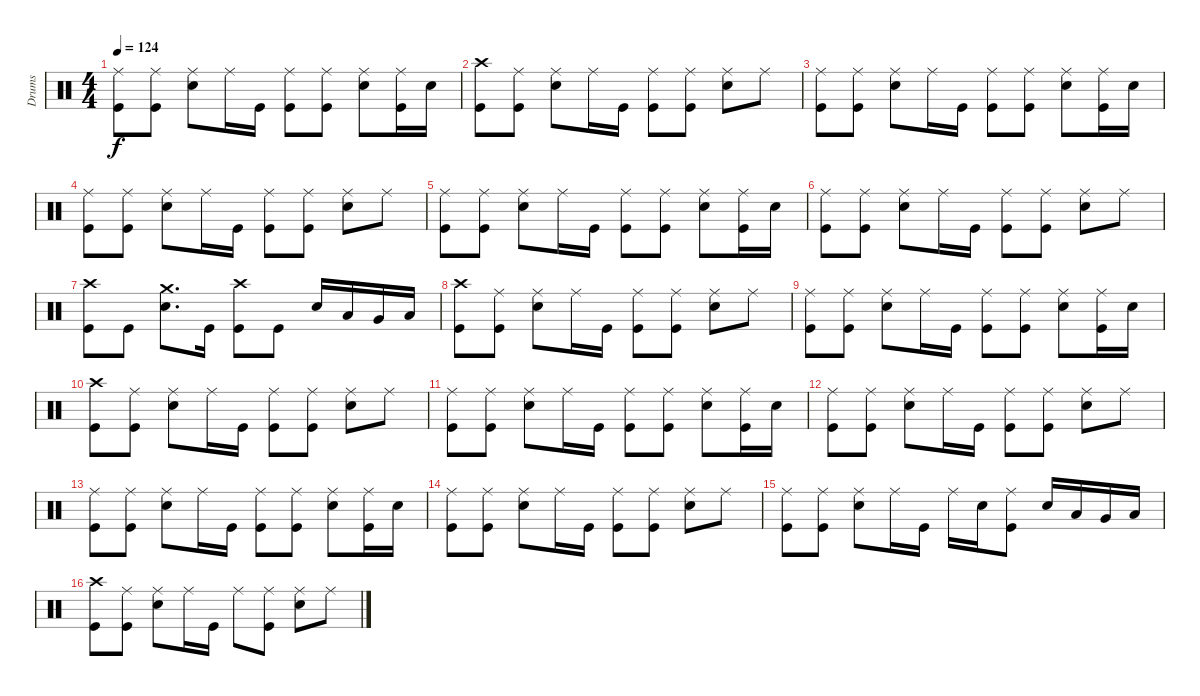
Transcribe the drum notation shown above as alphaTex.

\track ("Drums" "Drums") {instrument percussion}
\staff {score}
\articulation defaults
\ts (4 4)
\tempo 124
\clef neutral
\ks c
("Ride (middle)" "Kick (hit)").8{dy f} ("Ride (middle)" "Kick (hit)").8 ("Ride (middle)" "Electric Snare (hit)").8 "Ride (middle)".16 "Kick (hit)".16 ("Ride (middle)" "Kick (hit)").8 ("Ride (middle)" "Kick (hit)").8 ("Ride (middle)" "Electric Snare (hit)").8 ("Ride (middle)" "Kick (hit)").16 "Electric Snare (hit)".16 |
("Crash high (hit)" "Kick (hit)").8 ("Ride (middle)" "Kick (hit)").8 ("Ride (middle)" "Electric Snare (hit)").8 "Ride (middle)".16 "Kick (hit)".16 ("Ride (middle)" "Kick (hit)").8 ("Ride (middle)" "Kick (hit)").8 ("Ride (middle)" "Electric Snare (hit)").8 "Ride (middle)".8 |
("Ride (middle)" "Kick (hit)").8 ("Ride (middle)" "Kick (hit)").8 ("Ride (middle)" "Electric Snare (hit)").8 "Ride (middle)".16 "Kick (hit)".16 ("Ride (middle)" "Kick (hit)").8 ("Ride (middle)" "Kick (hit)").8 ("Ride (middle)" "Electric Snare (hit)").8 ("Ride (middle)" "Kick (hit)").16 "Electric Snare (hit)".16 |
("Ride (middle)" "Kick (hit)").8 ("Ride (middle)" "Kick (hit)").8 ("Ride (middle)" "Electric Snare (hit)").8 "Ride (middle)".16 "Kick (hit)".16 ("Ride (middle)" "Kick (hit)").8 ("Ride (middle)" "Kick (hit)").8 ("Ride (middle)" "Electric Snare (hit)").8 "Ride (middle)".8 |
("Ride (middle)" "Kick (hit)").8 ("Ride (middle)" "Kick (hit)").8 ("Ride (middle)" "Electric Snare (hit)").8 "Ride (middle)".16 "Kick (hit)".16 ("Ride (middle)" "Kick (hit)").8 ("Ride (middle)" "Kick (hit)").8 ("Ride (middle)" "Electric Snare (hit)").8 ("Ride (middle)" "Kick (hit)").16 "Electric Snare (hit)".16 |
("Ride (middle)" "Kick (hit)").8 ("Ride (middle)" "Kick (hit)").8 ("Ride (middle)" "Electric Snare (hit)").8 "Ride (middle)".16 "Kick (hit)".16 ("Ride (middle)" "Kick (hit)").8 ("Ride (middle)" "Kick (hit)").8 ("Ride (middle)" "Electric Snare (hit)").8 "Ride (middle)".8 |
("Crash high (hit)" "Kick (hit)").8 "Kick (hit)".8 ("Crash medium (hit)" "Electric Snare (hit)").8{d} "Kick (hit)".16 ("Crash high (hit)" "Kick (hit)").8 "Kick (hit)".8 "Electric Snare (hit)".16 "Low Tom (hit)".16 "Very Low Tom (hit)".16 "Low Floor Tom (hit)".16 |
("Crash high (hit)" "Kick (hit)").8 ("Ride (middle)" "Kick (hit)").8 ("Ride (middle)" "Electric Snare (hit)").8 "Ride (middle)".16 "Kick (hit)".16 ("Ride (middle)" "Kick (hit)").8 ("Ride (middle)" "Kick (hit)").8 ("Ride (middle)" "Electric Snare (hit)").8 "Ride (middle)".8 |
("Ride (middle)" "Kick (hit)").8 ("Ride (middle)" "Kick (hit)").8 ("Ride (middle)" "Electric Snare (hit)").8 "Ride (middle)".16 "Kick (hit)".16 ("Ride (middle)" "Kick (hit)").8 ("Ride (middle)" "Kick (hit)").8 ("Ride (middle)" "Electric Snare (hit)").8 ("Ride (middle)" "Kick (hit)").16 "Electric Snare (hit)".16 |
("Crash high (hit)" "Kick (hit)").8 ("Ride (middle)" "Kick (hit)").8 ("Ride (middle)" "Electric Snare (hit)").8 "Ride (middle)".16 "Kick (hit)".16 ("Ride (middle)" "Kick (hit)").8 ("Ride (middle)" "Kick (hit)").8 ("Ride (middle)" "Electric Snare (hit)").8 "Ride (middle)".8 |
("Ride (middle)" "Kick (hit)").8 ("Ride (middle)" "Kick (hit)").8 ("Ride (middle)" "Electric Snare (hit)").8 "Ride (middle)".16 "Kick (hit)".16 ("Ride (middle)" "Kick (hit)").8 ("Ride (middle)" "Kick (hit)").8 ("Ride (middle)" "Electric Snare (hit)").8 ("Ride (middle)" "Kick (hit)").16 "Electric Snare (hit)".16 |
("Ride (middle)" "Kick (hit)").8 ("Ride (middle)" "Kick (hit)").8 ("Ride (middle)" "Electric Snare (hit)").8 "Ride (middle)".16 "Kick (hit)".16 ("Ride (middle)" "Kick (hit)").8 ("Ride (middle)" "Kick (hit)").8 ("Ride (middle)" "Electric Snare (hit)").8 "Ride (middle)".8 |
("Ride (middle)" "Kick (hit)").8 ("Ride (middle)" "Kick (hit)").8 ("Ride (middle)" "Electric Snare (hit)").8 "Ride (middle)".16 "Kick (hit)".16 ("Ride (middle)" "Kick (hit)").8 ("Ride (middle)" "Kick (hit)").8 ("Ride (middle)" "Electric Snare (hit)").8 ("Ride (middle)" "Kick (hit)").16 "Electric Snare (hit)".16 |
("Ride (middle)" "Kick (hit)").8 ("Ride (middle)" "Kick (hit)").8 ("Ride (middle)" "Electric Snare (hit)").8 "Ride (middle)".16 "Kick (hit)".16 ("Ride (middle)" "Kick (hit)").8 ("Ride (middle)" "Kick (hit)").8 ("Ride (middle)" "Electric Snare (hit)").8 "Ride (middle)".8 |
("Ride (middle)" "Kick (hit)").8 ("Ride (middle)" "Kick (hit)").8 ("Ride (middle)" "Electric Snare (hit)").8 "Ride (middle)".16 "Kick (hit)".16 "Ride (middle)".16 "Electric Snare (hit)".16 ("Ride (middle)" "Kick (hit)").8 "Electric Snare (hit)".16 "Low Tom (hit)".16 "Very Low Tom (hit)".16 "Low Floor Tom (hit)".16 |
("Crash high (hit)" "Kick (hit)").8 ("Ride (middle)" "Kick (hit)").8 ("Ride (middle)" "Electric Snare (hit)").8 "Ride (middle)".16 "Kick (hit)".16 "Ride (middle)".8 ("Ride (middle)" "Kick (hit)").8 ("Ride (middle)" "Electric Snare (hit)").8 "Ride (middle)".8
